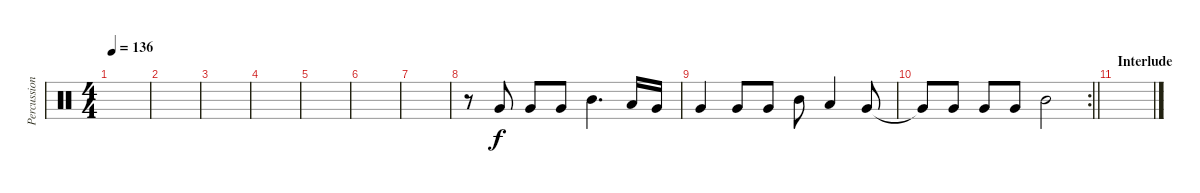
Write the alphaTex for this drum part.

\track ("Percussion (Guitar)" "Percussion") {instrument percussion}
\staff {score}
\articulation defaults
\ts (4 4)
\tempo 136
\clef neutral
\ks c
|
|
|
|
|
|
|
r.8 "Very Low Tom (hit)".8 "Very Low Tom (hit)".8 "Very Low Tom (hit)".8 "Mid Tom (hit)".4{d} "Low Tom (hit)".16 "Very Low Tom (hit)".16 |
"Very Low Tom (hit)".4 "Very Low Tom (hit)".8 "Very Low Tom (hit)".8 "Mid Tom (hit)".8 "Low Tom (hit)".4 "Very Low Tom (hit)".8 |
\rc 2
\barLineRight lightlight "Very Low Tom (hit)"{t}.8 "Very Low Tom (hit)".8 "Very Low Tom (hit)".8 "Very Low Tom (hit)".8 "Mid Tom (hit)".2
|
\section ("" "Interlude")
